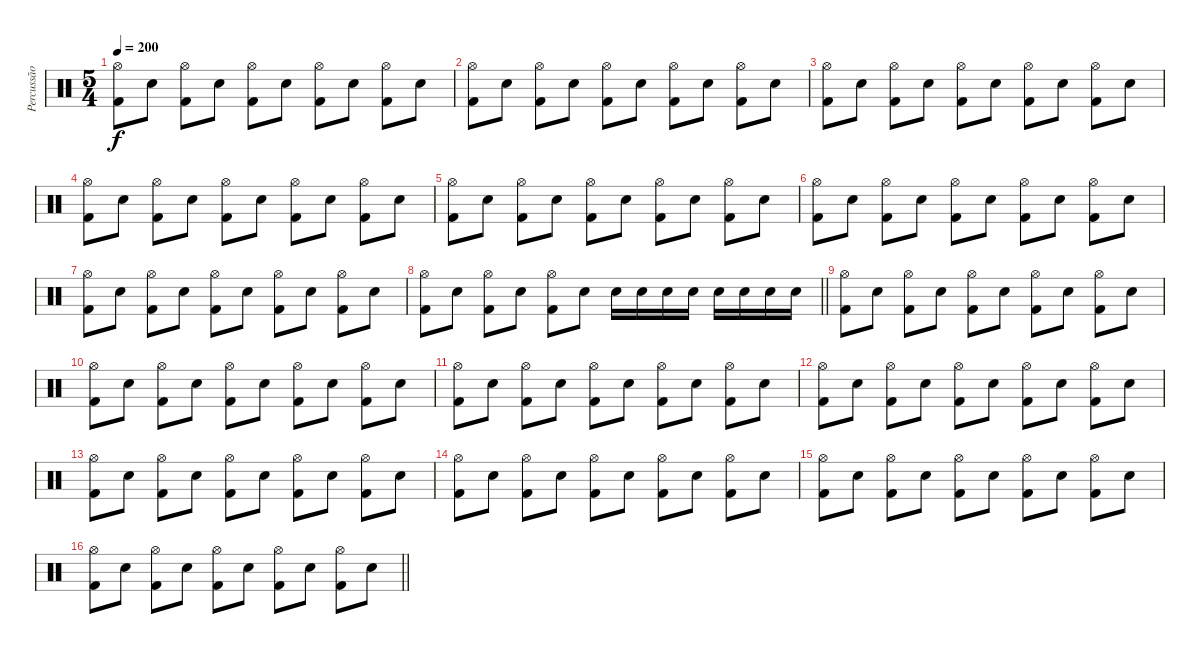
\track ("Percussão" "Percussão") {instrument percussion}
\staff {score}
\articulation defaults
\ts (5 4)
\tempo 200
\clef neutral
\ks c
("Kick (hit) 2" "Hi-Hat (open)").8{dy f} "Snare (hit) 2".8 ("Kick (hit) 2" "Hi-Hat (open)").8 "Snare (hit) 2".8 ("Kick (hit) 2" "Hi-Hat (open)").8 "Snare (hit) 2".8 ("Kick (hit) 2" "Hi-Hat (open)").8 "Snare (hit) 2".8 ("Kick (hit) 2" "Hi-Hat (open)").8 "Snare (hit) 2".8 |
("Kick (hit) 2" "Hi-Hat (open)").8 "Snare (hit) 2".8 ("Kick (hit) 2" "Hi-Hat (open)").8 "Snare (hit) 2".8 ("Kick (hit) 2" "Hi-Hat (open)").8 "Snare (hit) 2".8 ("Kick (hit) 2" "Hi-Hat (open)").8 "Snare (hit) 2".8 ("Kick (hit) 2" "Hi-Hat (open)").8 "Snare (hit) 2".8 |
("Kick (hit) 2" "Hi-Hat (open)").8 "Snare (hit) 2".8 ("Kick (hit) 2" "Hi-Hat (open)").8 "Snare (hit) 2".8 ("Kick (hit) 2" "Hi-Hat (open)").8 "Snare (hit) 2".8 ("Kick (hit) 2" "Hi-Hat (open)").8 "Snare (hit) 2".8 ("Kick (hit) 2" "Hi-Hat (open)").8 "Snare (hit) 2".8 |
("Kick (hit) 2" "Hi-Hat (open)").8 "Snare (hit) 2".8 ("Kick (hit) 2" "Hi-Hat (open)").8 "Snare (hit) 2".8 ("Kick (hit) 2" "Hi-Hat (open)").8 "Snare (hit) 2".8 ("Kick (hit) 2" "Hi-Hat (open)").8 "Snare (hit) 2".8 ("Kick (hit) 2" "Hi-Hat (open)").8 "Snare (hit) 2".8 |
("Kick (hit) 2" "Hi-Hat (open)").8 "Snare (hit) 2".8 ("Kick (hit) 2" "Hi-Hat (open)").8 "Snare (hit) 2".8 ("Kick (hit) 2" "Hi-Hat (open)").8 "Snare (hit) 2".8 ("Kick (hit) 2" "Hi-Hat (open)").8 "Snare (hit) 2".8 ("Kick (hit) 2" "Hi-Hat (open)").8 "Snare (hit) 2".8 |
("Kick (hit) 2" "Hi-Hat (open)").8 "Snare (hit) 2".8 ("Kick (hit) 2" "Hi-Hat (open)").8 "Snare (hit) 2".8 ("Kick (hit) 2" "Hi-Hat (open)").8 "Snare (hit) 2".8 ("Kick (hit) 2" "Hi-Hat (open)").8 "Snare (hit) 2".8 ("Kick (hit) 2" "Hi-Hat (open)").8 "Snare (hit) 2".8 |
("Kick (hit) 2" "Hi-Hat (open)").8 "Snare (hit) 2".8 ("Kick (hit) 2" "Hi-Hat (open)").8 "Snare (hit) 2".8 ("Kick (hit) 2" "Hi-Hat (open)").8 "Snare (hit) 2".8 ("Kick (hit) 2" "Hi-Hat (open)").8 "Snare (hit) 2".8 ("Kick (hit) 2" "Hi-Hat (open)").8 "Snare (hit) 2".8 |
\barLineRight lightlight
("Kick (hit) 2" "Hi-Hat (open)").8 "Snare (hit) 2".8 ("Kick (hit) 2" "Hi-Hat (open)").8 "Snare (hit) 2".8 ("Kick (hit) 2" "Hi-Hat (open)").8 "Snare (hit) 2".8 "Snare (hit) 2".16 "Snare (hit) 2".16 "Snare (hit) 2".16 "Snare (hit) 2".16 "Snare (hit) 2".16 "Snare (hit) 2".16 "Snare (hit) 2".16 "Snare (hit) 2".16 |
("Kick (hit) 2" "Hi-Hat (open)").8 "Snare (hit) 2".8 ("Kick (hit) 2" "Hi-Hat (open)").8 "Snare (hit) 2".8 ("Kick (hit) 2" "Hi-Hat (open)").8 "Snare (hit) 2".8 ("Kick (hit) 2" "Hi-Hat (open)").8 "Snare (hit) 2".8 ("Kick (hit) 2" "Hi-Hat (open)").8 "Snare (hit) 2".8 |
("Kick (hit) 2" "Hi-Hat (open)").8 "Snare (hit) 2".8 ("Kick (hit) 2" "Hi-Hat (open)").8 "Snare (hit) 2".8 ("Kick (hit) 2" "Hi-Hat (open)").8 "Snare (hit) 2".8 ("Kick (hit) 2" "Hi-Hat (open)").8 "Snare (hit) 2".8 ("Kick (hit) 2" "Hi-Hat (open)").8 "Snare (hit) 2".8 |
("Kick (hit) 2" "Hi-Hat (open)").8 "Snare (hit) 2".8 ("Kick (hit) 2" "Hi-Hat (open)").8 "Snare (hit) 2".8 ("Kick (hit) 2" "Hi-Hat (open)").8 "Snare (hit) 2".8 ("Kick (hit) 2" "Hi-Hat (open)").8 "Snare (hit) 2".8 ("Kick (hit) 2" "Hi-Hat (open)").8 "Snare (hit) 2".8 |
("Kick (hit) 2" "Hi-Hat (open)").8 "Snare (hit) 2".8 ("Kick (hit) 2" "Hi-Hat (open)").8 "Snare (hit) 2".8 ("Kick (hit) 2" "Hi-Hat (open)").8 "Snare (hit) 2".8 ("Kick (hit) 2" "Hi-Hat (open)").8 "Snare (hit) 2".8 ("Kick (hit) 2" "Hi-Hat (open)").8 "Snare (hit) 2".8 |
("Kick (hit) 2" "Hi-Hat (open)").8 "Snare (hit) 2".8 ("Kick (hit) 2" "Hi-Hat (open)").8 "Snare (hit) 2".8 ("Kick (hit) 2" "Hi-Hat (open)").8 "Snare (hit) 2".8 ("Kick (hit) 2" "Hi-Hat (open)").8 "Snare (hit) 2".8 ("Kick (hit) 2" "Hi-Hat (open)").8 "Snare (hit) 2".8 |
("Kick (hit) 2" "Hi-Hat (open)").8 "Snare (hit) 2".8 ("Kick (hit) 2" "Hi-Hat (open)").8 "Snare (hit) 2".8 ("Kick (hit) 2" "Hi-Hat (open)").8 "Snare (hit) 2".8 ("Kick (hit) 2" "Hi-Hat (open)").8 "Snare (hit) 2".8 ("Kick (hit) 2" "Hi-Hat (open)").8 "Snare (hit) 2".8 |
("Kick (hit) 2" "Hi-Hat (open)").8 "Snare (hit) 2".8 ("Kick (hit) 2" "Hi-Hat (open)").8 "Snare (hit) 2".8 ("Kick (hit) 2" "Hi-Hat (open)").8 "Snare (hit) 2".8 ("Kick (hit) 2" "Hi-Hat (open)").8 "Snare (hit) 2".8 ("Kick (hit) 2" "Hi-Hat (open)").8 "Snare (hit) 2".8 |
\barLineRight lightlight
("Kick (hit) 2" "Hi-Hat (open)").8 "Snare (hit) 2".8 ("Kick (hit) 2" "Hi-Hat (open)").8 "Snare (hit) 2".8 ("Kick (hit) 2" "Hi-Hat (open)").8 "Snare (hit) 2".8 ("Kick (hit) 2" "Hi-Hat (open)").8 "Snare (hit) 2".8 ("Kick (hit) 2" "Hi-Hat (open)").8 "Snare (hit) 2".8
